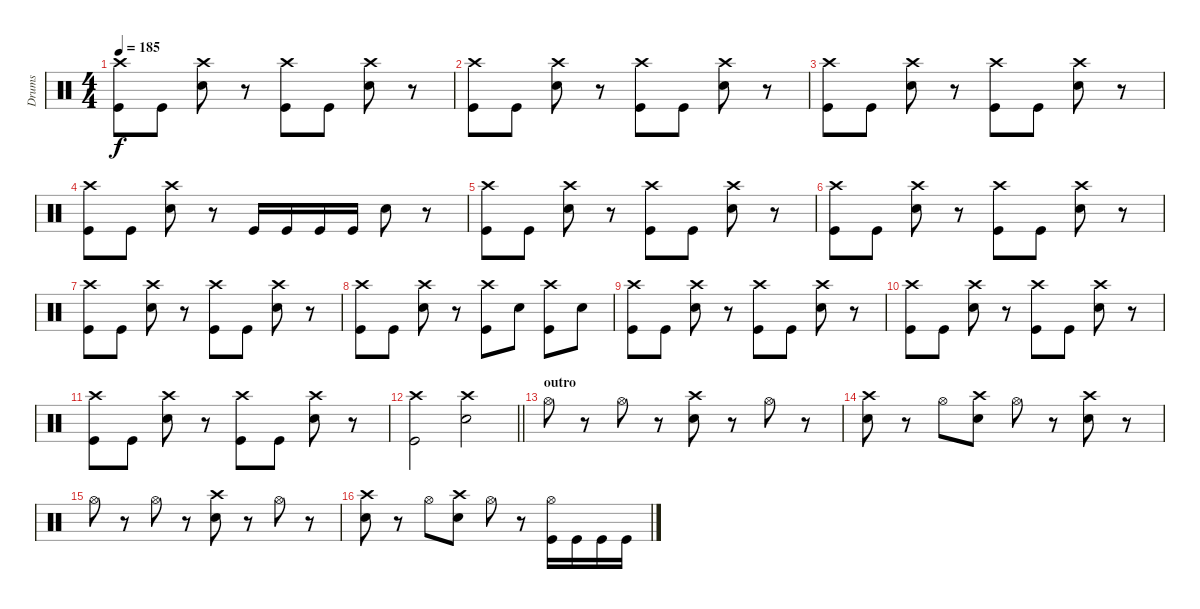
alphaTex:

\track ("Drums" "Drums") {instrument percussion}
\staff {score}
\articulation defaults
\ts (4 4)
\tempo 185
\clef neutral
\ks c
("Crash high (hit)" "Kick (hit)").8{dy f} "Kick (hit)".8 ("Crash high (hit)" "Electric Snare (hit)").8 r.8 ("Crash high (hit)" "Kick (hit)").8 "Kick (hit)".8 ("Crash high (hit)" "Electric Snare (hit)").8 r.8 |
("Crash high (hit)" "Kick (hit)").8 "Kick (hit)".8 ("Crash high (hit)" "Electric Snare (hit)").8 r.8 ("Crash high (hit)" "Kick (hit)").8 "Kick (hit)".8 ("Crash high (hit)" "Electric Snare (hit)").8 r.8 |
("Crash high (hit)" "Kick (hit)").8 "Kick (hit)".8 ("Crash high (hit)" "Electric Snare (hit)").8 r.8 ("Crash high (hit)" "Kick (hit)").8 "Kick (hit)".8 ("Crash high (hit)" "Electric Snare (hit)").8 r.8 |
("Crash high (hit)" "Kick (hit)").8 "Kick (hit)".8 ("Crash high (hit)" "Electric Snare (hit)").8 r.8 "Kick (hit)".16 "Kick (hit)".16 "Kick (hit)".16 "Kick (hit)".16 "Electric Snare (hit)".8 r.8 |
("Crash high (hit)" "Kick (hit)").8 "Kick (hit)".8 ("Crash high (hit)" "Electric Snare (hit)").8 r.8 ("Crash high (hit)" "Kick (hit)").8 "Kick (hit)".8 ("Crash high (hit)" "Electric Snare (hit)").8 r.8 |
("Crash high (hit)" "Kick (hit)").8 "Kick (hit)".8 ("Crash high (hit)" "Electric Snare (hit)").8 r.8 ("Crash high (hit)" "Kick (hit)").8 "Kick (hit)".8 ("Crash high (hit)" "Electric Snare (hit)").8 r.8 |
("Crash high (hit)" "Kick (hit)").8 "Kick (hit)".8 ("Crash high (hit)" "Electric Snare (hit)").8 r.8 ("Crash high (hit)" "Kick (hit)").8 "Kick (hit)".8 ("Crash high (hit)" "Electric Snare (hit)").8 r.8 |
("Crash high (hit)" "Kick (hit)").8 "Kick (hit)".8 ("Crash high (hit)" "Electric Snare (hit)").8 r.8 ("Crash high (hit)" "Kick (hit)").8 "Electric Snare (hit)".8 ("Crash high (hit)" "Kick (hit)").8 "Electric Snare (hit)".8 |
("Crash high (hit)" "Kick (hit)").8 "Kick (hit)".8 ("Crash high (hit)" "Electric Snare (hit)").8 r.8 ("Crash high (hit)" "Kick (hit)").8 "Kick (hit)".8 ("Crash high (hit)" "Electric Snare (hit)").8 r.8 |
("Crash high (hit)" "Kick (hit)").8 "Kick (hit)".8 ("Crash high (hit)" "Electric Snare (hit)").8 r.8 ("Crash high (hit)" "Kick (hit)").8 "Kick (hit)".8 ("Crash high (hit)" "Electric Snare (hit)").8 r.8 |
("Crash high (hit)" "Kick (hit)").8 "Kick (hit)".8 ("Crash high (hit)" "Electric Snare (hit)").8 r.8 ("Crash high (hit)" "Kick (hit)").8 "Kick (hit)".8 ("Crash high (hit)" "Electric Snare (hit)").8 r.8 |
\barLineRight lightlight
("Crash high (hit)" "Kick (hit)").2 ("Crash high (hit)" "Electric Snare (hit)").2 |
\section ("" "outro")
"Hi-Hat (open)".8 r.8 "Hi-Hat (open)".8 r.8 ("Crash high (hit)" "Electric Snare (hit)").8 r.8 "Hi-Hat (open)".8 r.8 |
("Crash high (hit)" "Electric Snare (hit)").8 r.8 "Hi-Hat (open)".8 ("Crash high (hit)" "Electric Snare (hit)").8 "Hi-Hat (open)".8 r.8 ("Crash high (hit)" "Electric Snare (hit)").8 r.8 |
"Hi-Hat (open)".8 r.8 "Hi-Hat (open)".8 r.8 ("Crash high (hit)" "Electric Snare (hit)").8 r.8 "Hi-Hat (open)".8 r.8 |
("Crash high (hit)" "Electric Snare (hit)").8 r.8 "Hi-Hat (open)".8 ("Crash high (hit)" "Electric Snare (hit)").8 "Hi-Hat (open)".8 r.8 ("Hi-Hat (open)" "Kick (hit)").16 "Kick (hit)".16 "Kick (hit)".16 "Kick (hit)".16
